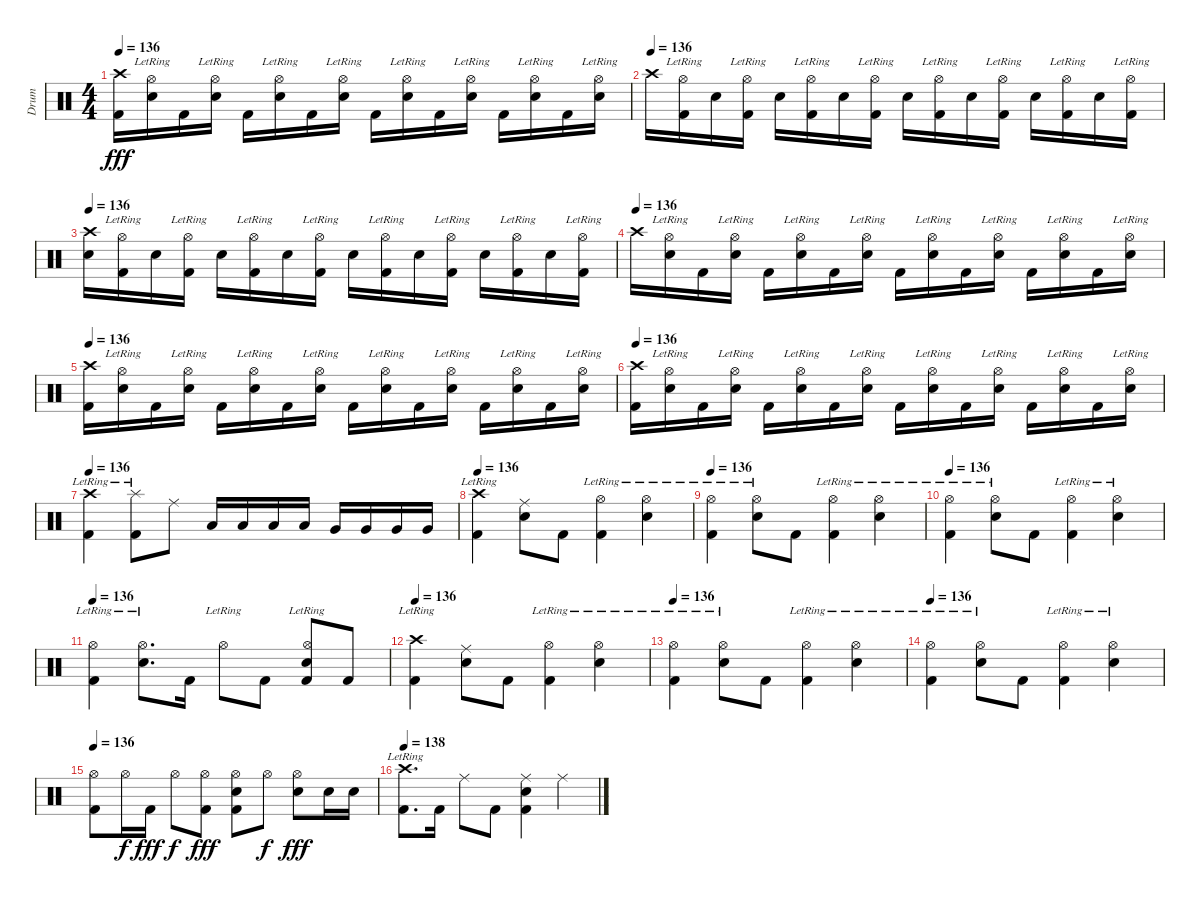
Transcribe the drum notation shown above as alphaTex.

\track ("Drum" "Drum") {instrument percussion}
\staff {score}
\articulation defaults
\ts (4 4)
\tempo 136
\clef neutral
\ks c
("Crash high (hit)" "Kick (hit) 2").16{dy fff} ("Hi-Hat (open)"{lr} "Electric Snare (hit)").16 "Kick (hit) 2".16 ("Hi-Hat (open)"{lr} "Electric Snare (hit)").16 "Kick (hit) 2".16 ("Hi-Hat (open)"{lr} "Electric Snare (hit)").16 "Kick (hit) 2".16 ("Hi-Hat (open)"{lr} "Electric Snare (hit)").16 "Kick (hit) 2".16 ("Hi-Hat (open)"{lr} "Electric Snare (hit)").16 "Kick (hit) 2".16 ("Hi-Hat (open)"{lr} "Electric Snare (hit)").16 "Kick (hit) 2".16 ("Hi-Hat (open)"{lr} "Electric Snare (hit)").16 "Kick (hit) 2".16 ("Hi-Hat (open)"{lr} "Electric Snare (hit)").16 |
\tempo (136)
"Crash high (hit)".16 ("Hi-Hat (open)"{lr} "Kick (hit) 2").16 "Electric Snare (hit)".16 ("Hi-Hat (open)"{lr} "Kick (hit) 2").16 "Electric Snare (hit)".16 ("Hi-Hat (open)"{lr} "Kick (hit) 2").16 "Electric Snare (hit)".16 ("Hi-Hat (open)"{lr} "Kick (hit) 2").16 "Electric Snare (hit)".16 ("Hi-Hat (open)"{lr} "Kick (hit) 2").16 "Electric Snare (hit)".16 ("Hi-Hat (open)"{lr} "Kick (hit) 2").16 "Electric Snare (hit)".16 ("Hi-Hat (open)"{lr} "Kick (hit) 2").16 "Electric Snare (hit)".16 ("Hi-Hat (open)"{lr} "Kick (hit) 2").16 |
\tempo 136
("Crash high (hit)" "Electric Snare (hit)").16 ("Hi-Hat (open)"{lr} "Kick (hit) 2").16 "Electric Snare (hit)".16 ("Hi-Hat (open)"{lr} "Kick (hit) 2").16 "Electric Snare (hit)".16 ("Hi-Hat (open)"{lr} "Kick (hit) 2").16 "Electric Snare (hit)".16 ("Hi-Hat (open)"{lr} "Kick (hit) 2").16 "Electric Snare (hit)".16 ("Hi-Hat (open)"{lr} "Kick (hit) 2").16 "Electric Snare (hit)".16 ("Hi-Hat (open)"{lr} "Kick (hit) 2").16 "Electric Snare (hit)".16 ("Hi-Hat (open)"{lr} "Kick (hit) 2").16 "Electric Snare (hit)".16 ("Hi-Hat (open)"{lr} "Kick (hit) 2").16 |
\tempo (136)
"Crash high (hit)".16 ("Hi-Hat (open)"{lr} "Electric Snare (hit)").16 "Kick (hit) 2".16 ("Hi-Hat (open)"{lr} "Electric Snare (hit)").16 "Kick (hit) 2".16 ("Hi-Hat (open)"{lr} "Electric Snare (hit)").16 "Kick (hit) 2".16 ("Hi-Hat (open)"{lr} "Electric Snare (hit)").16 "Kick (hit) 2".16 ("Hi-Hat (open)"{lr} "Electric Snare (hit)").16 "Kick (hit) 2".16 ("Hi-Hat (open)"{lr} "Electric Snare (hit)").16 "Kick (hit) 2".16 ("Hi-Hat (open)"{lr} "Electric Snare (hit)").16 "Kick (hit) 2".16 ("Hi-Hat (open)"{lr} "Electric Snare (hit)").16 |
\tempo 136
("Crash high (hit)" "Kick (hit) 2").16 ("Hi-Hat (open)"{lr} "Electric Snare (hit)").16 "Kick (hit) 2".16 ("Hi-Hat (open)"{lr} "Electric Snare (hit)").16 "Kick (hit) 2".16 ("Hi-Hat (open)"{lr} "Electric Snare (hit)").16 "Kick (hit) 2".16 ("Hi-Hat (open)"{lr} "Electric Snare (hit)").16 "Kick (hit) 2".16 ("Hi-Hat (open)"{lr} "Electric Snare (hit)").16 "Kick (hit) 2".16 ("Hi-Hat (open)"{lr} "Electric Snare (hit)").16 "Kick (hit) 2".16 ("Hi-Hat (open)"{lr} "Electric Snare (hit)").16 "Kick (hit) 2".16 ("Hi-Hat (open)"{lr} "Electric Snare (hit)").16 |
\tempo 136
("Crash high (hit)" "Kick (hit) 2").16 ("Hi-Hat (open)"{lr} "Electric Snare (hit)").16 "Kick (hit) 2".16 ("Hi-Hat (open)"{lr} "Electric Snare (hit)").16 "Kick (hit) 2".16 ("Hi-Hat (open)"{lr} "Electric Snare (hit)").16 "Kick (hit) 2".16 ("Hi-Hat (open)"{lr} "Electric Snare (hit)").16 "Kick (hit) 2".16 ("Hi-Hat (open)"{lr} "Electric Snare (hit)").16 "Kick (hit) 2".16 ("Hi-Hat (open)"{lr} "Electric Snare (hit)").16 "Kick (hit) 2".16 ("Hi-Hat (open)"{lr} "Electric Snare (hit)").16 "Kick (hit) 2".16 ("Hi-Hat (open)"{lr} "Electric Snare (hit)").16 |
\tempo 136
("Crash high (hit)"{lr} "Kick (hit) 2").4 ("Splash (hit)"{lr} "Kick (hit) 2").8 "Ride (middle)".8 "Low Tom (hit)".16 "Low Tom (hit)".16 "Low Tom (hit)".16 "Low Tom (hit)".16 "Very Low Tom (hit)".16 "Very Low Tom (hit)".16 "Very Low Tom (hit)".16 "Very Low Tom (hit)".16 |
\tempo 136
("Crash high (hit)"{lr} "Kick (hit) 2").4 ("Ride (middle)" "Electric Snare (hit)").8 "Kick (hit) 2".8 ("Hi-Hat (open)"{lr} "Kick (hit) 2").4 ("Hi-Hat (open)"{lr} "Electric Snare (hit)").4 |
\tempo 136
("Hi-Hat (open)"{lr} "Kick (hit) 2").4 ("Hi-Hat (open)"{lr} "Electric Snare (hit)").8 "Kick (hit) 2".8 ("Hi-Hat (open)"{lr} "Kick (hit) 2").4 ("Hi-Hat (open)"{lr} "Electric Snare (hit)").4 |
\tempo 136
("Hi-Hat (open)"{lr} "Kick (hit) 2").4 ("Hi-Hat (open)"{lr} "Electric Snare (hit)").8 "Kick (hit) 2".8 ("Hi-Hat (open)"{lr} "Kick (hit) 2").4 ("Hi-Hat (open)"{lr} "Electric Snare (hit)").4 |
\tempo 136
("Hi-Hat (open)"{lr} "Kick (hit) 2").4 ("Hi-Hat (open)"{lr} "Electric Snare (hit)").8{d} "Kick (hit) 2".16 "Hi-Hat (open)"{lr}.8 "Kick (hit) 2".8 ("Hi-Hat (open)"{lr} "Electric Snare (hit)" "Kick (hit) 2").8 "Kick (hit) 2".8 |
\tempo 136
("Crash high (hit)"{lr} "Kick (hit) 2").4 ("Ride (middle)" "Electric Snare (hit)").8 "Kick (hit) 2".8 ("Hi-Hat (open)"{lr} "Kick (hit) 2").4 ("Hi-Hat (open)"{lr} "Electric Snare (hit)").4 |
\tempo 136
("Hi-Hat (open)"{lr} "Kick (hit) 2").4 ("Hi-Hat (open)"{lr} "Electric Snare (hit)").8 "Kick (hit) 2".8 ("Hi-Hat (open)"{lr} "Kick (hit) 2").4 ("Hi-Hat (open)"{lr} "Electric Snare (hit)").4 |
\tempo 136
("Hi-Hat (open)"{lr} "Kick (hit) 2").4 ("Hi-Hat (open)"{lr} "Electric Snare (hit)").8 "Kick (hit) 2".8 ("Hi-Hat (open)"{lr} "Kick (hit) 2").4 ("Hi-Hat (open)"{lr} "Electric Snare (hit)").4 |
\tempo 136
("Hi-Hat (open)" "Kick (hit) 2").8 "Hi-Hat (open)".16{dy f} "Kick (hit) 2".16{dy fff} "Hi-Hat (open)".8{dy f} ("Hi-Hat (open)" "Kick (hit) 2").8{dy fff} ("Hi-Hat (open)" "Electric Snare (hit)" "Kick (hit) 2").8 "Hi-Hat (open)".8{dy f} ("Hi-Hat (open)" "Electric Snare (hit)").8{dy fff} "Electric Snare (hit)".16 "Electric Snare (hit)".16 |
\tempo 138
("Crash high (hit)"{lr} "Kick (hit) 2").8{d} "Kick (hit) 2".16 "Ride (middle)".8 "Kick (hit) 2".8 ("Ride (middle)" "Electric Snare (hit)" "Kick (hit) 2").4 "Ride (middle)".4
